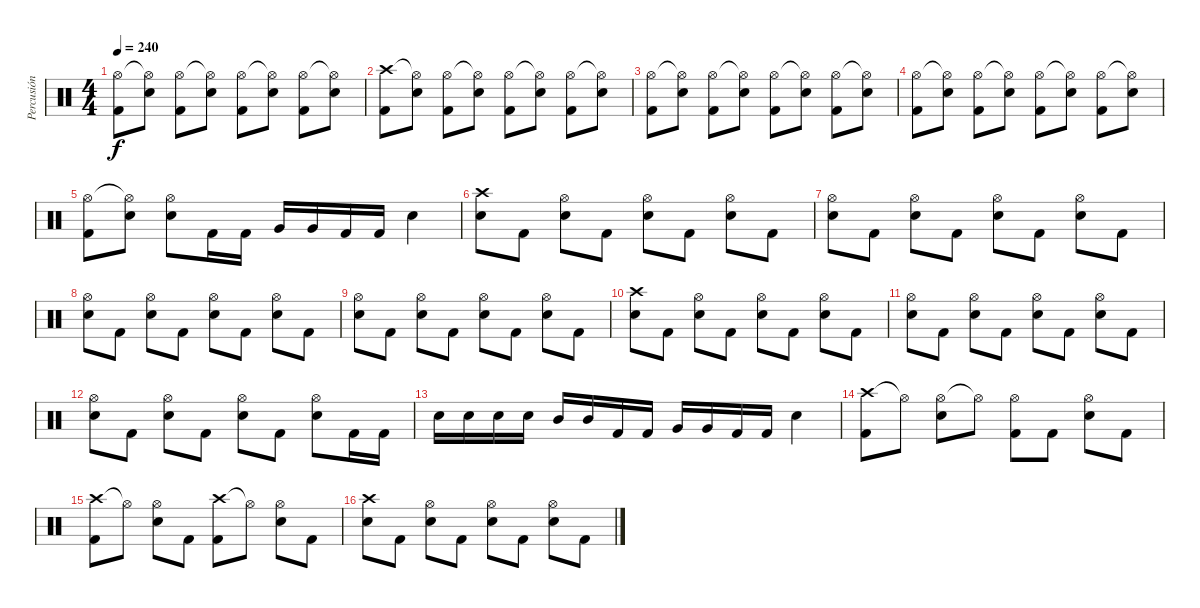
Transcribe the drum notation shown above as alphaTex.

\track ("Percusión" "Percusión") {instrument percussion}
\staff {score}
\articulation defaults
\ts (4 4)
\tempo 240
\clef neutral
\ks c
("Hi-Hat (open)" "Kick (hit) 2").8{dy f} ("Hi-Hat (open)"{t} "Snare (hit) 2").8 ("Hi-Hat (open)" "Kick (hit) 2").8 ("Hi-Hat (open)"{t} "Snare (hit) 2").8 ("Hi-Hat (open)" "Kick (hit) 2").8 ("Hi-Hat (open)"{t} "Snare (hit) 2").8 ("Hi-Hat (open)" "Kick (hit) 2").8 ("Hi-Hat (open)"{t} "Snare (hit) 2").8 |
("Crash high (hit)" "Kick (hit) 2").8 ("Hi-Hat (open)"{t} "Snare (hit) 2").8 ("Hi-Hat (open)" "Kick (hit) 2").8 ("Hi-Hat (open)"{t} "Snare (hit) 2").8 ("Hi-Hat (open)" "Kick (hit) 2").8 ("Hi-Hat (open)"{t} "Snare (hit) 2").8 ("Hi-Hat (open)" "Kick (hit) 2").8 ("Hi-Hat (open)"{t} "Snare (hit) 2").8 |
("Hi-Hat (open)" "Kick (hit) 2").8 ("Hi-Hat (open)"{t} "Snare (hit) 2").8 ("Hi-Hat (open)" "Kick (hit) 2").8 ("Hi-Hat (open)"{t} "Snare (hit) 2").8 ("Hi-Hat (open)" "Kick (hit) 2").8 ("Hi-Hat (open)"{t} "Snare (hit) 2").8 ("Hi-Hat (open)" "Kick (hit) 2").8 ("Hi-Hat (open)"{t} "Snare (hit) 2").8 |
("Hi-Hat (open)" "Kick (hit) 2").8 ("Hi-Hat (open)"{t} "Snare (hit) 2").8 ("Hi-Hat (open)" "Kick (hit) 2").8 ("Hi-Hat (open)"{t} "Snare (hit) 2").8 ("Hi-Hat (open)" "Kick (hit) 2").8 ("Hi-Hat (open)"{t} "Snare (hit) 2").8 ("Hi-Hat (open)" "Kick (hit) 2").8 ("Hi-Hat (open)"{t} "Snare (hit) 2").8 |
("Hi-Hat (open)" "Kick (hit) 2").8 ("Hi-Hat (open)"{t} "Snare (hit) 2").8 ("Snare (hit) 2" "Hi-Hat (open)").8 "Kick (hit) 2".16 "Kick (hit) 2".16 "Very Low Tom (hit)".16 "Very Low Tom (hit)".16 "Kick (hit) 2".16 "Kick (hit) 2".16 "Snare (hit) 2".4 |
("Crash high (hit)" "Snare (hit) 2").8 "Kick (hit) 2".8 ("Snare (hit) 2" "Hi-Hat (open)").8 "Kick (hit) 2".8 ("Snare (hit) 2" "Hi-Hat (open)").8 "Kick (hit) 2".8 ("Snare (hit) 2" "Hi-Hat (open)").8 "Kick (hit) 2".8 |
("Snare (hit) 2" "Hi-Hat (open)").8 "Kick (hit) 2".8 ("Snare (hit) 2" "Hi-Hat (open)").8 "Kick (hit) 2".8 ("Snare (hit) 2" "Hi-Hat (open)").8 "Kick (hit) 2".8 ("Snare (hit) 2" "Hi-Hat (open)").8 "Kick (hit) 2".8 |
("Snare (hit) 2" "Hi-Hat (open)").8 "Kick (hit) 2".8 ("Snare (hit) 2" "Hi-Hat (open)").8 "Kick (hit) 2".8 ("Snare (hit) 2" "Hi-Hat (open)").8 "Kick (hit) 2".8 ("Snare (hit) 2" "Hi-Hat (open)").8 "Kick (hit) 2".8 |
("Snare (hit) 2" "Hi-Hat (open)").8 "Kick (hit) 2".8 ("Snare (hit) 2" "Hi-Hat (open)").8 "Kick (hit) 2".8 ("Snare (hit) 2" "Hi-Hat (open)").8 "Kick (hit) 2".8 ("Snare (hit) 2" "Hi-Hat (open)").8 "Kick (hit) 2".8 |
("Crash high (hit)" "Snare (hit) 2").8 "Kick (hit) 2".8 ("Snare (hit) 2" "Hi-Hat (open)").8 "Kick (hit) 2".8 ("Snare (hit) 2" "Hi-Hat (open)").8 "Kick (hit) 2".8 ("Snare (hit) 2" "Hi-Hat (open)").8 "Kick (hit) 2".8 |
("Snare (hit) 2" "Hi-Hat (open)").8 "Kick (hit) 2".8 ("Snare (hit) 2" "Hi-Hat (open)").8 "Kick (hit) 2".8 ("Snare (hit) 2" "Hi-Hat (open)").8 "Kick (hit) 2".8 ("Snare (hit) 2" "Hi-Hat (open)").8 "Kick (hit) 2".8 |
("Snare (hit) 2" "Hi-Hat (open)").8 "Kick (hit) 2".8 ("Snare (hit) 2" "Hi-Hat (open)").8 "Kick (hit) 2".8 ("Snare (hit) 2" "Hi-Hat (open)").8 "Kick (hit) 2".8 ("Snare (hit) 2" "Hi-Hat (open)").8 "Kick (hit) 2".16 "Kick (hit) 2".16 |
"Snare (hit) 2".16 "Snare (hit) 2".16 "Snare (hit) 2".16 "Snare (hit) 2".16 "Mid Tom (hit)".16 "Mid Tom (hit)".16 "Kick (hit) 2".16 "Kick (hit) 2".16 "Very Low Tom (hit)".16 "Very Low Tom (hit)".16 "Kick (hit) 2".16 "Kick (hit) 2".16 "Snare (hit) 2".4 |
("Crash high (hit)" "Kick (hit) 2").8 "Hi-Hat (open)"{t}.8 ("Hi-Hat (open)" "Snare (hit) 2").8 "Hi-Hat (open)"{t}.8 ("Hi-Hat (open)" "Kick (hit) 2").8 "Kick (hit) 2".8 ("Hi-Hat (open)" "Snare (hit) 2").8 "Kick (hit) 2".8 |
("Crash high (hit)" "Kick (hit) 2").8 "Hi-Hat (open)"{t}.8 ("Hi-Hat (open)" "Snare (hit) 2").8 "Kick (hit) 2".8 ("Crash high (hit)" "Kick (hit) 2").8 "Hi-Hat (open)"{t}.8 ("Hi-Hat (open)" "Snare (hit) 2").8 "Kick (hit) 2".8 |
("Crash high (hit)" "Snare (hit) 2").8 "Kick (hit) 2".8 ("Snare (hit) 2" "Hi-Hat (open)").8 "Kick (hit) 2".8 ("Snare (hit) 2" "Hi-Hat (open)").8 "Kick (hit) 2".8 ("Snare (hit) 2" "Hi-Hat (open)").8 "Kick (hit) 2".8
